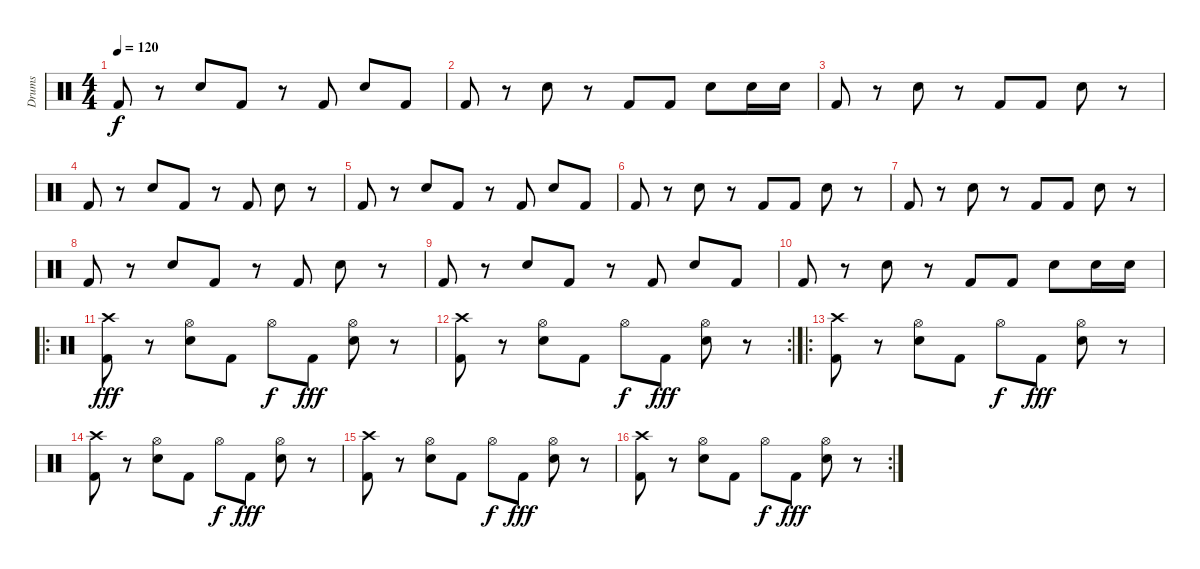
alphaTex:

\track ("Drums" "Drums") {instrument percussion}
\staff {score}
\articulation defaults
\ts (4 4)
\tempo 120
\clef neutral
\ks c "Kick (hit) 2".8{dy f}
r.8 "Snare (hit) 2".8 "Kick (hit) 2".8 r.8 "Kick (hit) 2".8 "Snare (hit) 2".8 "Kick (hit) 2".8 |
"Kick (hit) 2".8 r.8 "Snare (hit) 2".8 r.8 "Kick (hit) 2".8 "Kick (hit) 2".8 "Snare (hit) 2".8 "Snare (hit) 2".16 "Snare (hit) 2".16 |
"Kick (hit) 2".8 r.8 "Snare (hit) 2".8 r.8 "Kick (hit) 2".8 "Kick (hit) 2".8 "Snare (hit) 2".8 r.8 |
"Kick (hit) 2".8 r.8 "Snare (hit) 2".8 "Kick (hit) 2".8 r.8 "Kick (hit) 2".8 "Snare (hit) 2".8 r.8 |
"Kick (hit) 2".8 r.8 "Snare (hit) 2".8 "Kick (hit) 2".8 r.8 "Kick (hit) 2".8 "Snare (hit) 2".8 "Kick (hit) 2".8 |
"Kick (hit) 2".8 r.8 "Snare (hit) 2".8 r.8 "Kick (hit) 2".8 "Kick (hit) 2".8 "Snare (hit) 2".8 r.8 |
"Kick (hit) 2".8 r.8 "Snare (hit) 2".8 r.8 "Kick (hit) 2".8 "Kick (hit) 2".8 "Snare (hit) 2".8 r.8 |
"Kick (hit) 2".8 r.8 "Snare (hit) 2".8 "Kick (hit) 2".8 r.8 "Kick (hit) 2".8 "Snare (hit) 2".8 r.8 |
"Kick (hit) 2".8 r.8 "Snare (hit) 2".8 "Kick (hit) 2".8 r.8 "Kick (hit) 2".8 "Snare (hit) 2".8 "Kick (hit) 2".8 |
"Kick (hit) 2".8 r.8 "Snare (hit) 2".8 r.8 "Kick (hit) 2".8 "Kick (hit) 2".8 "Snare (hit) 2".8 "Snare (hit) 2".16 "Snare (hit) 2".16 |
\ro
("Crash high (hit)" "Kick (hit) 2").8{dy fff} r.8 ("Hi-Hat (open)" "Snare (hit) 2").8 "Kick (hit) 2".8 "Hi-Hat (open)".8{dy f} "Kick (hit) 2".8{dy fff} ("Hi-Hat (open)" "Snare (hit) 2").8 r.8 |
\rc 2
("Crash high (hit)" "Kick (hit) 2").8 r.8 ("Hi-Hat (open)" "Snare (hit) 2").8 "Kick (hit) 2".8 "Hi-Hat (open)".8{dy f} "Kick (hit) 2".8{dy fff} ("Hi-Hat (open)" "Snare (hit) 2").8 r.8 |
\ro
("Crash high (hit)" "Kick (hit) 2").8 r.8 ("Hi-Hat (open)" "Snare (hit) 2").8 "Kick (hit) 2".8 "Hi-Hat (open)".8{dy f} "Kick (hit) 2".8{dy fff} ("Hi-Hat (open)" "Snare (hit) 2").8 r.8 |
("Crash high (hit)" "Kick (hit) 2").8 r.8 ("Hi-Hat (open)" "Snare (hit) 2").8 "Kick (hit) 2".8 "Hi-Hat (open)".8{dy f} "Kick (hit) 2".8{dy fff} ("Hi-Hat (open)" "Snare (hit) 2").8 r.8 |
("Crash high (hit)" "Kick (hit) 2").8 r.8 ("Hi-Hat (open)" "Snare (hit) 2").8 "Kick (hit) 2".8 "Hi-Hat (open)".8{dy f} "Kick (hit) 2".8{dy fff} ("Hi-Hat (open)" "Snare (hit) 2").8 r.8 |
\rc 2
("Crash high (hit)" "Kick (hit) 2").8 r.8 ("Hi-Hat (open)" "Snare (hit) 2").8 "Kick (hit) 2".8 "Hi-Hat (open)".8{dy f} "Kick (hit) 2".8{dy fff} ("Hi-Hat (open)" "Snare (hit) 2").8 r.8
